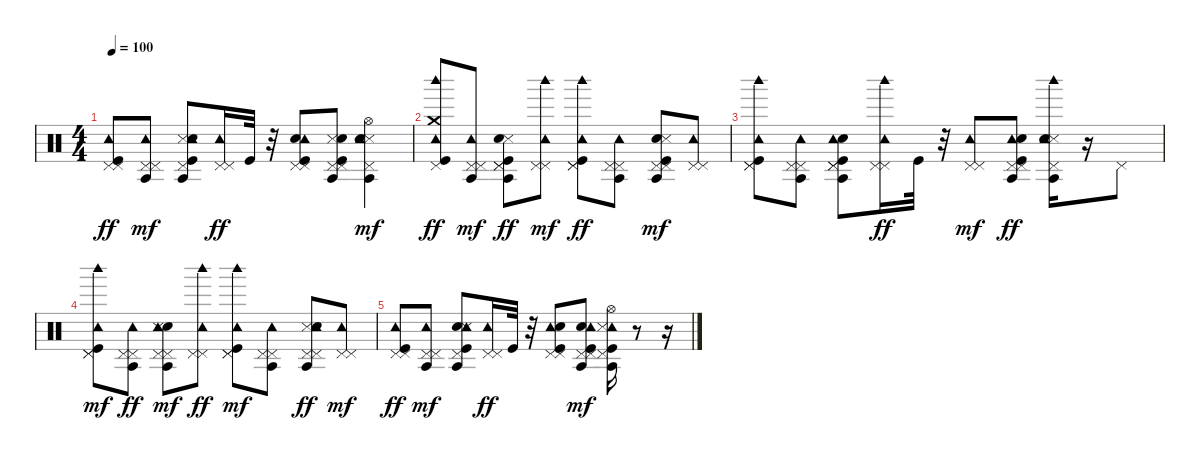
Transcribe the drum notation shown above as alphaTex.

\track "" {instrument percussion}
\staff {score}
\articulation defaults
\ts (4 4)
\tempo 100
\clef neutral
\ks c
("Kick (hit)" "Pedal Hi-Hat (hit)" "Pedal Hi-Hat (hit)" "Tambourine (hit)").8{dy ff} ("Tambourine (hit)" "Pedal Hi-Hat (hit)" "Agogo tow (hit)" "Pedal Hi-Hat (hit)").8{dy mf} ("Snare (side stick) 3" "Pedal Hi-Hat (hit)" "Snare (hit) 2" "Tambourine (hit)" "Kick (hit)" "Agogo tow (hit)").8 ("Tambourine (hit)" "Pedal Hi-Hat (hit)" "Pedal Hi-Hat (hit)").16{dy ff} "Kick (hit)".32 r.32 ("Snare (hit) 2" "Tambourine (hit)" "Pedal Hi-Hat (hit)" "Pedal Hi-Hat (hit)" "Kick (hit)").8 ("Snare (side stick) 3" "Snare (hit) 2" "Agogo tow (hit)" "Pedal Hi-Hat (hit)" "Pedal Hi-Hat (hit)" "Kick (hit)").8 ("Hi-Hat (open)" "Snare (side stick) 3" "Snare (hit) 2" "Tambourine (hit)" "Agogo tow (hit)" "Pedal Hi-Hat (hit)").4{dy mf} |
("Tambourine (hit)" "Woodblock high (hit)" "Kick (hit)" "Crash medium (hit)" "Pedal Hi-Hat (hit)").8{dy ff} ("Agogo tow (hit)" "Pedal Hi-Hat (hit)" "Pedal Hi-Hat (hit)" "Tambourine (hit)").8{dy mf} ("Snare (side stick) 3" "Agogo tow (hit)" "Pedal Hi-Hat (hit)" "Snare (hit) 2" "Pedal Hi-Hat (hit)" "Kick (hit)").8{dy ff} ("Tambourine (hit)" "Pedal Hi-Hat (hit)" "Woodblock high (hit)" "Pedal Hi-Hat (hit)").8{dy mf} ("Woodblock high (hit)" "Pedal Hi-Hat (hit)" "Tambourine (hit)" "Pedal Hi-Hat (hit)" "Kick (hit)").8{dy ff} ("Agogo tow (hit)" "Tambourine (hit)" "Pedal Hi-Hat (hit)" "Pedal Hi-Hat (hit)").8 ("Kick (hit)" "Pedal Hi-Hat (hit)" "Snare (hit) 2" "Agogo tow (hit)" "Pedal Hi-Hat (hit)" "Snare (side stick) 3").8{dy mf} ("Pedal Hi-Hat (hit)" "Pedal Hi-Hat (hit)" "Tambourine (hit)").8 |
("Tambourine (hit)" "Kick (hit)" "Pedal Hi-Hat (hit)" "Woodblock high (hit)" "Pedal Hi-Hat (hit)").8 ("Pedal Hi-Hat (hit)" "Agogo tow (hit)" "Pedal Hi-Hat (hit)" "Tambourine (hit)").8 ("Pedal Hi-Hat (hit)" "Snare (hit) 2" "Pedal Hi-Hat (hit)" "Agogo tow (hit)" "Kick (hit)" "Tambourine (hit)").8 ("Tambourine (hit)" "Woodblock high (hit)" "Pedal Hi-Hat (hit)" "Pedal Hi-Hat (hit)").16{dy ff} "Kick (hit)".32 r.32 ("Tambourine (hit)" "Pedal Hi-Hat (hit)" "Pedal Hi-Hat (hit)").8{dy mf} ("Tambourine (hit)" "Pedal Hi-Hat (hit)" "Pedal Hi-Hat (hit)" "Snare (hit) 2" "Agogo tow (hit)" "Kick (hit)").8{dy ff} ("Snare (side stick) 3" "Agogo tow (hit)" "Tambourine (hit)" "Woodblock high (hit)" "Snare (hit) 2" "Pedal Hi-Hat (hit)").16 r.16 "Pedal Hi-Hat (hit)".8 |
("Pedal Hi-Hat (hit)" "Kick (hit)" "Tambourine (hit)" "Woodblock high (hit)" "Pedal Hi-Hat (hit)").8{dy mf} ("Tambourine (hit)" "Agogo tow (hit)" "Pedal Hi-Hat (hit)" "Pedal Hi-Hat (hit)").8{dy ff} ("Pedal Hi-Hat (hit)" "Agogo tow (hit)" "Snare (hit) 2" "Pedal Hi-Hat (hit)" "Snare (side stick) 3" "Tambourine (hit)").8{dy mf} ("Tambourine (hit)" "Woodblock high (hit)" "Pedal Hi-Hat (hit)" "Pedal Hi-Hat (hit)").8{dy ff} ("Kick (hit)" "Pedal Hi-Hat (hit)" "Woodblock high (hit)" "Pedal Hi-Hat (hit)" "Tambourine (hit)").8{dy mf} ("Pedal Hi-Hat (hit)" "Agogo tow (hit)" "Pedal Hi-Hat (hit)" "Tambourine (hit)").8 ("Snare (side stick) 3" "Tambourine (hit)" "Pedal Hi-Hat (hit)" "Pedal Hi-Hat (hit)" "Agogo tow (hit)" "Snare (hit) 2").8{dy ff} ("Pedal Hi-Hat (hit)" "Pedal Hi-Hat (hit)" "Tambourine (hit)").8{dy mf} |
("Kick (hit)" "Pedal Hi-Hat (hit)" "Pedal Hi-Hat (hit)" "Tambourine (hit)").8{dy ff} ("Pedal Hi-Hat (hit)" "Pedal Hi-Hat (hit)" "Agogo tow (hit)" "Tambourine (hit)").8{dy mf} ("Agogo tow (hit)" "Snare (hit) 2" "Kick (hit)" "Pedal Hi-Hat (hit)" "Tambourine (hit)" "Snare (side stick) 3").8 ("Pedal Hi-Hat (hit)" "Tambourine (hit)" "Pedal Hi-Hat (hit)").16{dy ff} "Kick (hit)".32 r.32 ("Kick (hit)" "Pedal Hi-Hat (hit)" "Tambourine (hit)" "Snare (hit) 2" "Pedal Hi-Hat (hit)").8 ("Pedal Hi-Hat (hit)" "Kick (hit)" "Snare (hit) 2" "Pedal Hi-Hat (hit)" "Tambourine (hit)" "Agogo tow (hit)").8{dy mf} ("Pedal Hi-Hat (hit)" "Kick (hit)" "Tambourine (hit)" "Agogo tow (hit)" "Hi-Hat (open)" "Snare (side stick) 3").16 r.8 r.16
